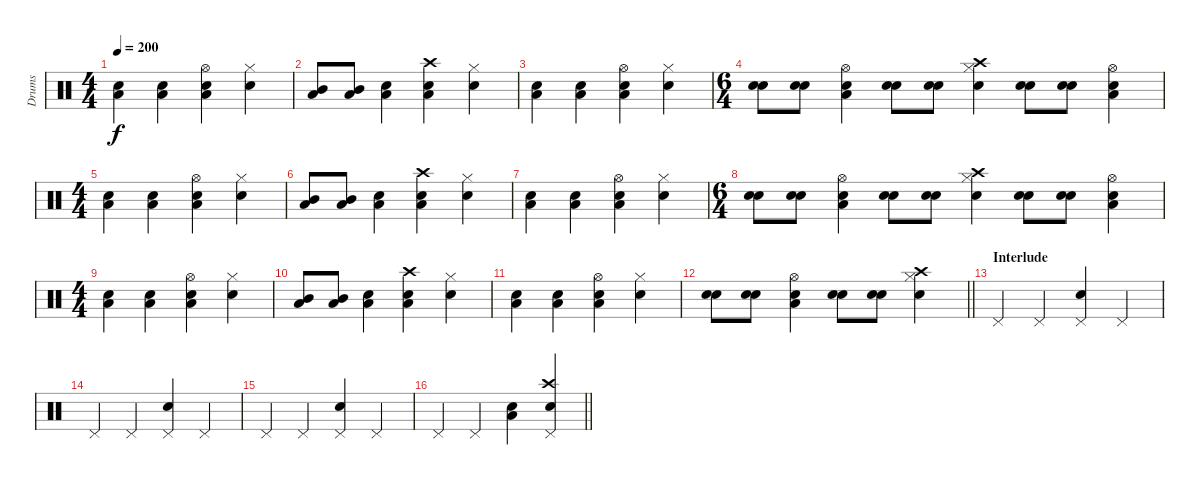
\track ("Drums" "Drums") {instrument percussion}
\staff {score}
\articulation defaults
\ts (4 4)
\tempo 200
\clef neutral
\ks c
("Electric Snare (hit)" "Low Tom (hit)").4{dy f} ("Electric Snare (hit)" "Low Tom (hit)").4 ("Snare (hit) 2" "Low Tom (hit)" "Hi-Hat (open)").4 ("Electric Snare (hit)" "Hi-Hat (closed)").4 |
("Mid Tom (hit)" "Low Tom (hit)").8 ("Mid Tom (hit)" "Low Tom (hit)").8 ("Snare (hit) 2" "Low Tom (hit)").4 ("Electric Snare (hit)" "Low Tom (hit)" "Crash high (hit)").4 ("Electric Snare (hit)" "Hi-Hat (closed)").4 |
("Electric Snare (hit)" "Low Tom (hit)").4 ("Electric Snare (hit)" "Low Tom (hit)").4 ("Snare (hit) 2" "Low Tom (hit)" "Hi-Hat (open)").4 ("Electric Snare (hit)" "Hi-Hat (closed)").4 |
\ts (6 4)
("Snare (hit) 2" "Electric Snare (hit)").8 ("Snare (hit) 2" "Electric Snare (hit)").8 ("Electric Snare (hit)" "Low Tom (hit)" "Hi-Hat (open)").4 ("Snare (hit) 2" "Electric Snare (hit)").8 ("Snare (hit) 2" "Electric Snare (hit)").8 ("Electric Snare (hit)" "Hi-Hat (closed)" "Crash high (hit)").4 ("Snare (hit) 2" "Electric Snare (hit)").8 ("Snare (hit) 2" "Electric Snare (hit)").8 ("Electric Snare (hit)" "Low Tom (hit)" "Hi-Hat (open)").4 |
\ts (4 4)
("Electric Snare (hit)" "Low Tom (hit)").4 ("Electric Snare (hit)" "Low Tom (hit)").4 ("Snare (hit) 2" "Low Tom (hit)" "Hi-Hat (open)").4 ("Electric Snare (hit)" "Hi-Hat (closed)").4 |
("Mid Tom (hit)" "Low Tom (hit)").8 ("Mid Tom (hit)" "Low Tom (hit)").8 ("Snare (hit) 2" "Low Tom (hit)").4 ("Electric Snare (hit)" "Low Tom (hit)" "Crash high (hit)").4 ("Electric Snare (hit)" "Hi-Hat (closed)").4 |
("Electric Snare (hit)" "Low Tom (hit)").4 ("Electric Snare (hit)" "Low Tom (hit)").4 ("Snare (hit) 2" "Low Tom (hit)" "Hi-Hat (open)").4 ("Electric Snare (hit)" "Hi-Hat (closed)").4 |
\ts (6 4)
("Snare (hit) 2" "Electric Snare (hit)").8 ("Snare (hit) 2" "Electric Snare (hit)").8 ("Electric Snare (hit)" "Low Tom (hit)" "Hi-Hat (open)").4 ("Snare (hit) 2" "Electric Snare (hit)").8 ("Snare (hit) 2" "Electric Snare (hit)").8 ("Electric Snare (hit)" "Hi-Hat (closed)" "Crash high (hit)").4 ("Snare (hit) 2" "Electric Snare (hit)").8 ("Snare (hit) 2" "Electric Snare (hit)").8 ("Electric Snare (hit)" "Low Tom (hit)" "Hi-Hat (open)").4 |
\ts (4 4)
("Electric Snare (hit)" "Low Tom (hit)").4 ("Electric Snare (hit)" "Low Tom (hit)").4 ("Snare (hit) 2" "Low Tom (hit)" "Hi-Hat (open)").4 ("Electric Snare (hit)" "Hi-Hat (closed)").4 |
("Mid Tom (hit)" "Low Tom (hit)").8 ("Mid Tom (hit)" "Low Tom (hit)").8 ("Snare (hit) 2" "Low Tom (hit)").4 ("Electric Snare (hit)" "Low Tom (hit)" "Crash high (hit)").4 ("Electric Snare (hit)" "Hi-Hat (closed)").4 |
("Electric Snare (hit)" "Low Tom (hit)").4 ("Electric Snare (hit)" "Low Tom (hit)").4 ("Snare (hit) 2" "Low Tom (hit)" "Hi-Hat (open)").4 ("Electric Snare (hit)" "Hi-Hat (closed)").4 |
\barLineRight lightlight
("Snare (hit) 2" "Electric Snare (hit)").8 ("Snare (hit) 2" "Electric Snare (hit)").8 ("Electric Snare (hit)" "Low Tom (hit)" "Hi-Hat (open)").4 ("Snare (hit) 2" "Electric Snare (hit)").8 ("Snare (hit) 2" "Electric Snare (hit)").8 ("Electric Snare (hit)" "Hi-Hat (closed)" "Crash high (hit)").4 |
\section ("" "Interlude")
"Pedal Hi-Hat (hit)".4 "Pedal Hi-Hat (hit)".4 ("Electric Snare (hit)" "Pedal Hi-Hat (hit)").4 "Pedal Hi-Hat (hit)".4 |
"Pedal Hi-Hat (hit)".4 "Pedal Hi-Hat (hit)".4 ("Electric Snare (hit)" "Pedal Hi-Hat (hit)").4 "Pedal Hi-Hat (hit)".4 |
"Pedal Hi-Hat (hit)".4 "Pedal Hi-Hat (hit)".4 ("Electric Snare (hit)" "Pedal Hi-Hat (hit)").4 "Pedal Hi-Hat (hit)".4 |
\barLineRight lightlight "Pedal Hi-Hat (hit)".4 "Pedal Hi-Hat (hit)".4
("Electric Snare (hit)" "Low Tom (hit)").4 ("Electric Snare (hit)" "Pedal Hi-Hat (hit)" "Crash high (hit)").4
